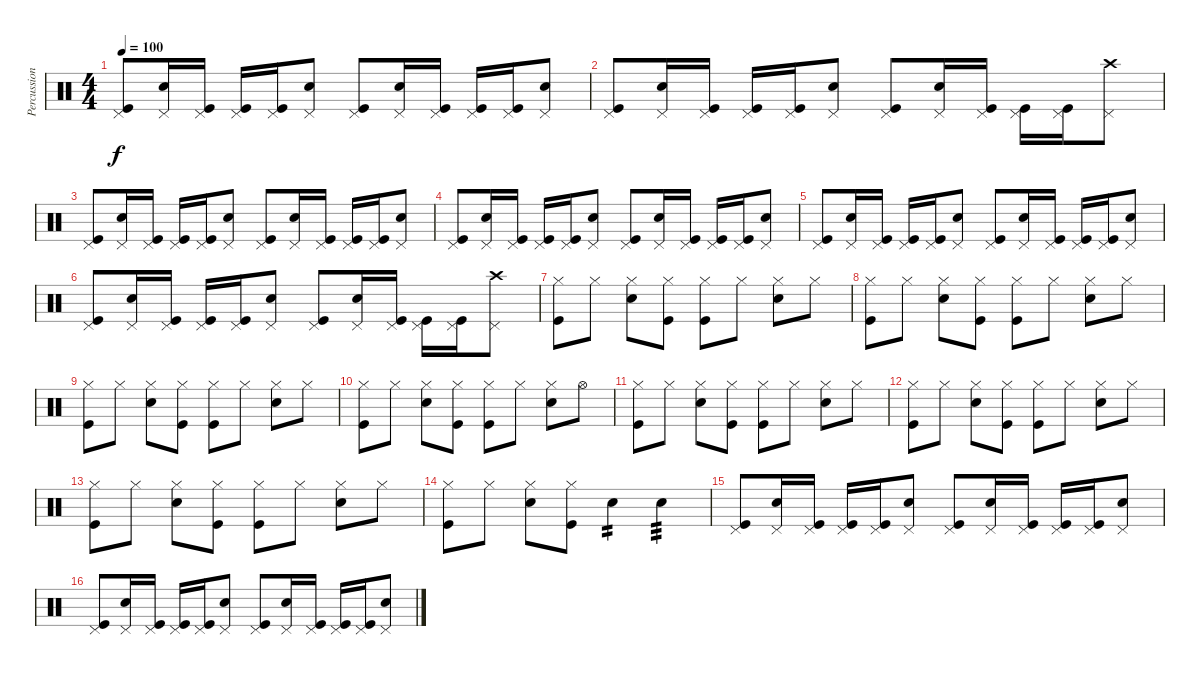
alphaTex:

\track ("Percussion" "Percussion") {instrument percussion}
\staff {score}
\articulation defaults
\ts (4 4)
\tempo 100
\clef neutral
\ks c
("Kick (hit)" "Pedal Hi-Hat (hit)").8{dy f} ("Snare (hit) 2" "Pedal Hi-Hat (hit)").16 ("Kick (hit)" "Pedal Hi-Hat (hit)").16 ("Kick (hit)" "Pedal Hi-Hat (hit)").16 ("Kick (hit)" "Pedal Hi-Hat (hit)").16 ("Snare (hit) 2" "Pedal Hi-Hat (hit)").8 ("Kick (hit)" "Pedal Hi-Hat (hit)").8 ("Snare (hit) 2" "Pedal Hi-Hat (hit)").16 ("Kick (hit)" "Pedal Hi-Hat (hit)").16 ("Kick (hit)" "Pedal Hi-Hat (hit)").16 ("Kick (hit)" "Pedal Hi-Hat (hit)").16 ("Snare (hit) 2" "Pedal Hi-Hat (hit)").8 |
("Kick (hit)" "Pedal Hi-Hat (hit)").8 ("Snare (hit) 2" "Pedal Hi-Hat (hit)").16 ("Kick (hit)" "Pedal Hi-Hat (hit)").16 ("Kick (hit)" "Pedal Hi-Hat (hit)").16 ("Kick (hit)" "Pedal Hi-Hat (hit)").16 ("Snare (hit) 2" "Pedal Hi-Hat (hit)").8 ("Kick (hit)" "Pedal Hi-Hat (hit)").8 ("Snare (hit) 2" "Pedal Hi-Hat (hit)").16 ("Kick (hit)" "Pedal Hi-Hat (hit)").16 ("Kick (hit)" "Pedal Hi-Hat (hit)").16 ("Kick (hit)" "Pedal Hi-Hat (hit)").16 ("Crash high (hit)" "Pedal Hi-Hat (hit)").8 |
("Kick (hit)" "Pedal Hi-Hat (hit)").8 ("Snare (hit) 2" "Pedal Hi-Hat (hit)").16 ("Kick (hit)" "Pedal Hi-Hat (hit)").16 ("Kick (hit)" "Pedal Hi-Hat (hit)").16 ("Kick (hit)" "Pedal Hi-Hat (hit)").16 ("Snare (hit) 2" "Pedal Hi-Hat (hit)").8 ("Kick (hit)" "Pedal Hi-Hat (hit)").8 ("Snare (hit) 2" "Pedal Hi-Hat (hit)").16 ("Kick (hit)" "Pedal Hi-Hat (hit)").16 ("Kick (hit)" "Pedal Hi-Hat (hit)").16 ("Kick (hit)" "Pedal Hi-Hat (hit)").16 ("Snare (hit) 2" "Pedal Hi-Hat (hit)").8 |
("Kick (hit)" "Pedal Hi-Hat (hit)").8 ("Snare (hit) 2" "Pedal Hi-Hat (hit)").16 ("Kick (hit)" "Pedal Hi-Hat (hit)").16 ("Kick (hit)" "Pedal Hi-Hat (hit)").16 ("Kick (hit)" "Pedal Hi-Hat (hit)").16 ("Snare (hit) 2" "Pedal Hi-Hat (hit)").8 ("Kick (hit)" "Pedal Hi-Hat (hit)").8 ("Snare (hit) 2" "Pedal Hi-Hat (hit)").16 ("Kick (hit)" "Pedal Hi-Hat (hit)").16 ("Kick (hit)" "Pedal Hi-Hat (hit)").16 ("Kick (hit)" "Pedal Hi-Hat (hit)").16 ("Snare (hit) 2" "Pedal Hi-Hat (hit)").8 |
("Kick (hit)" "Pedal Hi-Hat (hit)").8 ("Snare (hit) 2" "Pedal Hi-Hat (hit)").16 ("Kick (hit)" "Pedal Hi-Hat (hit)").16 ("Kick (hit)" "Pedal Hi-Hat (hit)").16 ("Kick (hit)" "Pedal Hi-Hat (hit)").16 ("Snare (hit) 2" "Pedal Hi-Hat (hit)").8 ("Kick (hit)" "Pedal Hi-Hat (hit)").8 ("Snare (hit) 2" "Pedal Hi-Hat (hit)").16 ("Kick (hit)" "Pedal Hi-Hat (hit)").16 ("Kick (hit)" "Pedal Hi-Hat (hit)").16 ("Kick (hit)" "Pedal Hi-Hat (hit)").16 ("Snare (hit) 2" "Pedal Hi-Hat (hit)").8 |
("Kick (hit)" "Pedal Hi-Hat (hit)").8 ("Snare (hit) 2" "Pedal Hi-Hat (hit)").16 ("Kick (hit)" "Pedal Hi-Hat (hit)").16 ("Kick (hit)" "Pedal Hi-Hat (hit)").16 ("Kick (hit)" "Pedal Hi-Hat (hit)").16 ("Snare (hit) 2" "Pedal Hi-Hat (hit)").8 ("Kick (hit)" "Pedal Hi-Hat (hit)").8 ("Snare (hit) 2" "Pedal Hi-Hat (hit)").16 ("Kick (hit)" "Pedal Hi-Hat (hit)").16 ("Kick (hit)" "Pedal Hi-Hat (hit)").16 ("Kick (hit)" "Pedal Hi-Hat (hit)").16 ("Crash high (hit)" "Pedal Hi-Hat (hit)").8 |
("Kick (hit)" "Hi-Hat (closed)").8 "Hi-Hat (closed)".8 ("Electric Snare (hit)" "Hi-Hat (closed)").8 ("Kick (hit)" "Hi-Hat (closed)").8 ("Kick (hit)" "Hi-Hat (closed)").8 "Hi-Hat (closed)".8 ("Electric Snare (hit)" "Hi-Hat (closed)").8 "Hi-Hat (closed)".8 |
("Kick (hit)" "Hi-Hat (closed)").8 "Hi-Hat (closed)".8 ("Electric Snare (hit)" "Hi-Hat (closed)").8 ("Kick (hit)" "Hi-Hat (closed)").8 ("Kick (hit)" "Hi-Hat (closed)").8 "Hi-Hat (closed)".8 ("Electric Snare (hit)" "Hi-Hat (closed)").8 "Hi-Hat (closed)".8 |
("Kick (hit)" "Hi-Hat (closed)").8 "Hi-Hat (closed)".8 ("Electric Snare (hit)" "Hi-Hat (closed)").8 ("Kick (hit)" "Hi-Hat (closed)").8 ("Kick (hit)" "Hi-Hat (closed)").8 "Hi-Hat (closed)".8 ("Electric Snare (hit)" "Hi-Hat (closed)").8 "Hi-Hat (closed)".8 |
("Kick (hit)" "Hi-Hat (closed)").8 "Hi-Hat (closed)".8 ("Electric Snare (hit)" "Hi-Hat (closed)").8 ("Kick (hit)" "Hi-Hat (closed)").8 ("Kick (hit)" "Hi-Hat (closed)").8 "Hi-Hat (closed)".8 ("Electric Snare (hit)" "Hi-Hat (closed)").8 "Hi-Hat (open)".8 |
("Kick (hit)" "Hi-Hat (closed)").8 "Hi-Hat (closed)".8 ("Electric Snare (hit)" "Hi-Hat (closed)").8 ("Kick (hit)" "Hi-Hat (closed)").8 ("Kick (hit)" "Hi-Hat (closed)").8 "Hi-Hat (closed)".8 ("Electric Snare (hit)" "Hi-Hat (closed)").8 "Hi-Hat (closed)".8 |
("Kick (hit)" "Hi-Hat (closed)").8 "Hi-Hat (closed)".8 ("Electric Snare (hit)" "Hi-Hat (closed)").8 ("Kick (hit)" "Hi-Hat (closed)").8 ("Kick (hit)" "Hi-Hat (closed)").8 "Hi-Hat (closed)".8 ("Electric Snare (hit)" "Hi-Hat (closed)").8 "Hi-Hat (closed)".8 |
("Kick (hit)" "Hi-Hat (closed)").8 "Hi-Hat (closed)".8 ("Electric Snare (hit)" "Hi-Hat (closed)").8 ("Kick (hit)" "Hi-Hat (closed)").8 ("Kick (hit)" "Hi-Hat (closed)").8 "Hi-Hat (closed)".8 ("Electric Snare (hit)" "Hi-Hat (closed)").8 "Hi-Hat (closed)".8 |
("Kick (hit)" "Hi-Hat (closed)").8 "Hi-Hat (closed)".8 ("Electric Snare (hit)" "Hi-Hat (closed)").8 ("Kick (hit)" "Hi-Hat (closed)").8 "Electric Snare (hit)".4{tp 2} "Electric Snare (hit)".4{tp 3} |
("Kick (hit)" "Pedal Hi-Hat (hit)").8 ("Snare (hit) 2" "Pedal Hi-Hat (hit)").16 ("Kick (hit)" "Pedal Hi-Hat (hit)").16 ("Kick (hit)" "Pedal Hi-Hat (hit)").16 ("Kick (hit)" "Pedal Hi-Hat (hit)").16 ("Snare (hit) 2" "Pedal Hi-Hat (hit)").8 ("Kick (hit)" "Pedal Hi-Hat (hit)").8 ("Snare (hit) 2" "Pedal Hi-Hat (hit)").16 ("Kick (hit)" "Pedal Hi-Hat (hit)").16 ("Kick (hit)" "Pedal Hi-Hat (hit)").16 ("Kick (hit)" "Pedal Hi-Hat (hit)").16 ("Snare (hit) 2" "Pedal Hi-Hat (hit)").8 |
("Kick (hit)" "Pedal Hi-Hat (hit)").8 ("Snare (hit) 2" "Pedal Hi-Hat (hit)").16 ("Kick (hit)" "Pedal Hi-Hat (hit)").16 ("Kick (hit)" "Pedal Hi-Hat (hit)").16 ("Kick (hit)" "Pedal Hi-Hat (hit)").16 ("Snare (hit) 2" "Pedal Hi-Hat (hit)").8 ("Kick (hit)" "Pedal Hi-Hat (hit)").8 ("Snare (hit) 2" "Pedal Hi-Hat (hit)").16 ("Kick (hit)" "Pedal Hi-Hat (hit)").16 ("Kick (hit)" "Pedal Hi-Hat (hit)").16 ("Kick (hit)" "Pedal Hi-Hat (hit)").16 ("Snare (hit) 2" "Pedal Hi-Hat (hit)").8
